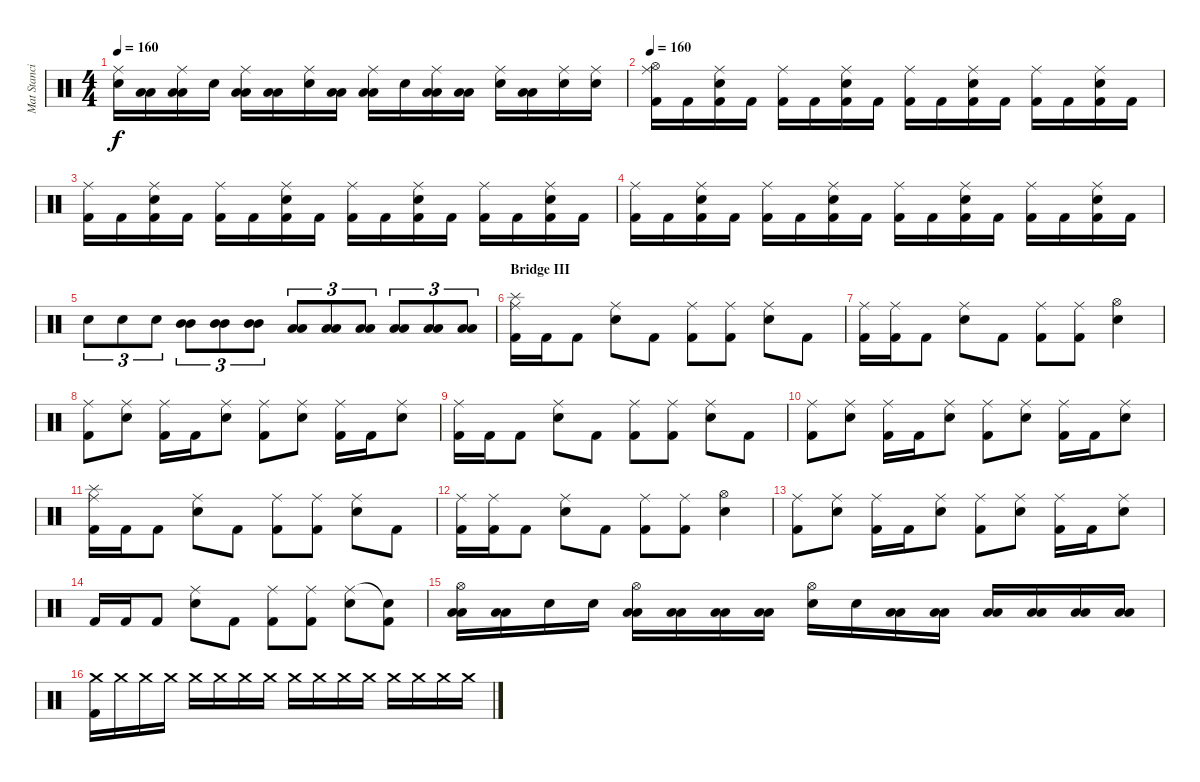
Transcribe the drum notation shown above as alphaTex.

\track ("Mat Stancioiu" "Mat Stanci") {instrument percussion}
\staff {score}
\articulation defaults
\ts (4 4)
\tempo 160
\clef neutral
\ks c
("Electric Snare (hit)" "Ride (middle)").16{dy f} ("Low Tom (hit)" "Low Tom (hit)").16 ("Low Tom (hit)" "Low Tom (hit)" "Ride (middle)").16 "Electric Snare (hit)".16 ("Low Tom (hit)" "Low Tom (hit)" "Ride (middle)").16 ("Low Tom (hit)" "Low Tom (hit)").16 ("Electric Snare (hit)" "Ride (middle)").16 ("Low Tom (hit)" "Low Tom (hit)").16 ("Low Tom (hit)" "Low Tom (hit)" "Ride (middle)").16 "Electric Snare (hit)".16 ("Low Tom (hit)" "Low Tom (hit)" "Ride (middle)").16 ("Low Tom (hit)" "Low Tom (hit)").16 ("Electric Snare (hit)" "Ride (middle)").16 ("Low Tom (hit)" "Low Tom (hit)").16 ("Electric Snare (hit)" "Ride (middle)").16 ("Electric Snare (hit)" "Ride (middle)").16 |
\tempo 160
("Hi-Hat (open)" "Kick (hit) 2" "Ride (middle)").16 "Kick (hit) 2".16 ("Electric Snare (hit)" "Kick (hit) 2" "Ride (middle)").16 "Kick (hit) 2".16 ("Kick (hit) 2" "Ride (middle)").16 "Kick (hit) 2".16 ("Electric Snare (hit)" "Kick (hit) 2" "Ride (middle)").16 "Kick (hit) 2".16 ("Kick (hit) 2" "Ride (middle)").16 "Kick (hit) 2".16 ("Electric Snare (hit)" "Kick (hit) 2" "Ride (middle)").16 "Kick (hit) 2".16 ("Kick (hit) 2" "Ride (middle)").16 "Kick (hit) 2".16 ("Electric Snare (hit)" "Kick (hit) 2" "Ride (middle)").16 "Kick (hit) 2".16 |
("Kick (hit) 2" "Ride (middle)").16 "Kick (hit) 2".16 ("Electric Snare (hit)" "Kick (hit) 2" "Ride (middle)").16 "Kick (hit) 2".16 ("Kick (hit) 2" "Ride (middle)").16 "Kick (hit) 2".16 ("Electric Snare (hit)" "Kick (hit) 2" "Ride (middle)").16 "Kick (hit) 2".16 ("Kick (hit) 2" "Ride (middle)").16 "Kick (hit) 2".16 ("Electric Snare (hit)" "Kick (hit) 2" "Ride (middle)").16 "Kick (hit) 2".16 ("Kick (hit) 2" "Ride (middle)").16 "Kick (hit) 2".16 ("Electric Snare (hit)" "Kick (hit) 2" "Ride (middle)").16 "Kick (hit) 2".16 |
("Kick (hit) 2" "Ride (middle)").16 "Kick (hit) 2".16 ("Electric Snare (hit)" "Kick (hit) 2" "Ride (middle)").16 "Kick (hit) 2".16 ("Kick (hit) 2" "Ride (middle)").16 "Kick (hit) 2".16 ("Electric Snare (hit)" "Kick (hit) 2" "Ride (middle)").16 "Kick (hit) 2".16 ("Kick (hit) 2" "Ride (middle)").16 "Kick (hit) 2".16 ("Electric Snare (hit)" "Kick (hit) 2" "Ride (middle)").16 "Kick (hit) 2".16 ("Kick (hit) 2" "Ride (middle)").16 "Kick (hit) 2".16 ("Electric Snare (hit)" "Kick (hit) 2" "Ride (middle)").16 "Kick (hit) 2".16 |
"Electric Snare (hit)".8{tu (3 2)} "Electric Snare (hit)".8{tu (3 2)} "Electric Snare (hit)".8{tu (3 2)} ("Mid Tom (hit)" "Mid Tom (hit)").8{tu (3 2)} ("Mid Tom (hit)" "Mid Tom (hit)").8{tu (3 2)} ("Mid Tom (hit)" "Mid Tom (hit)").8{tu (3 2)} ("Low Tom (hit)" "Low Tom (hit)").8{tu (3 2)} ("Low Tom (hit)" "Low Tom (hit)").8{tu (3 2)} ("Low Tom (hit)" "Low Tom (hit)").8{tu (3 2)} ("Low Floor Tom (hit)" "Low Floor Tom (hit)").8{tu (3 2)} ("Low Floor Tom (hit)" "Low Floor Tom (hit)").8{tu (3 2)} ("Low Floor Tom (hit)" "Low Floor Tom (hit)").8{tu (3 2)} |
\section ("" "Bridge III")
("Kick (hit) 2" "Ride (middle)" "Splash (hit)").16 "Kick (hit) 2".16 "Kick (hit) 2".8 ("Electric Snare (hit)" "Ride (middle)").8 "Kick (hit) 2".8 ("Kick (hit) 2" "Ride (middle)").8 ("Kick (hit) 2" "Ride (middle)").8 ("Electric Snare (hit)" "Ride (middle)").8 "Kick (hit) 2".8 |
("Kick (hit) 2" "Ride (middle)").16 ("Kick (hit) 2" "Ride (middle)").16 "Kick (hit) 2".8 ("Electric Snare (hit)" "Ride (middle)").8 "Kick (hit) 2".8 ("Kick (hit) 2" "Ride (middle)").8 ("Kick (hit) 2" "Ride (middle)").8 ("Electric Snare (hit)" "Hi-Hat (open)").4 |
("Kick (hit) 2" "Ride (middle)").8 ("Electric Snare (hit)" "Ride (middle)").8 ("Kick (hit) 2" "Ride (middle)").16 "Kick (hit) 2".16 ("Electric Snare (hit)" "Ride (middle)").8 ("Kick (hit) 2" "Ride (middle)").8 ("Electric Snare (hit)" "Ride (middle)").8 ("Kick (hit) 2" "Ride (middle)").16 "Kick (hit) 2".16 ("Electric Snare (hit)" "Ride (middle)").8 |
("Kick (hit) 2" "Ride (middle)").16 "Kick (hit) 2".16 "Kick (hit) 2".8 ("Electric Snare (hit)" "Ride (middle)").8 "Kick (hit) 2".8 ("Kick (hit) 2" "Ride (middle)").8 ("Kick (hit) 2" "Ride (middle)").8 ("Electric Snare (hit)" "Ride (middle)").8 "Kick (hit) 2".8 |
("Kick (hit) 2" "Ride (middle)").8 ("Electric Snare (hit)" "Ride (middle)").8 ("Kick (hit) 2" "Ride (middle)").16 "Kick (hit) 2".16 ("Electric Snare (hit)" "Ride (middle)").8 ("Kick (hit) 2" "Ride (middle)").8 ("Electric Snare (hit)" "Ride (middle)").8 ("Kick (hit) 2" "Ride (middle)").16 "Kick (hit) 2".16 ("Electric Snare (hit)" "Ride (middle)").8 |
("Kick (hit) 2" "Ride (middle)" "Splash (hit)").16 "Kick (hit) 2".16 "Kick (hit) 2".8 ("Electric Snare (hit)" "Ride (middle)").8 "Kick (hit) 2".8 ("Kick (hit) 2" "Ride (middle)").8 ("Kick (hit) 2" "Ride (middle)").8 ("Electric Snare (hit)" "Ride (middle)").8 "Kick (hit) 2".8 |
("Kick (hit) 2" "Ride (middle)").16 ("Kick (hit) 2" "Ride (middle)").16 "Kick (hit) 2".8 ("Electric Snare (hit)" "Ride (middle)").8 "Kick (hit) 2".8 ("Kick (hit) 2" "Ride (middle)").8 ("Kick (hit) 2" "Ride (middle)").8 ("Electric Snare (hit)" "Hi-Hat (open)").4 |
("Kick (hit) 2" "Ride (middle)").8 ("Electric Snare (hit)" "Ride (middle)").8 ("Kick (hit) 2" "Ride (middle)").16 "Kick (hit) 2".16 ("Electric Snare (hit)" "Ride (middle)").8 ("Kick (hit) 2" "Ride (middle)").8 ("Electric Snare (hit)" "Ride (middle)").8 ("Kick (hit) 2" "Ride (middle)").16 "Kick (hit) 2".16 ("Electric Snare (hit)" "Ride (middle)").8 |
"Kick (hit) 2".16 "Kick (hit) 2".16 "Kick (hit) 2".8 ("Electric Snare (hit)" "Ride (middle)").8 "Kick (hit) 2".8 ("Kick (hit) 2" "Ride (middle)").8 ("Kick (hit) 2" "Ride (middle)").8 ("Electric Snare (hit)" "Ride (middle)").8 ("Kick (hit) 2" "Snare (hit)"{t}).8 |
("Low Tom (hit)" "Low Tom (hit)" "Hi-Hat (open)").16 ("Low Tom (hit)" "Low Tom (hit)").16 "Electric Snare (hit)".16 "Electric Snare (hit)".16 ("Low Tom (hit)" "Low Tom (hit)" "Hi-Hat (open)").16 ("Low Tom (hit)" "Low Tom (hit)").16 ("Low Tom (hit)" "Low Tom (hit)").16 ("Low Tom (hit)" "Low Tom (hit)").16 ("Electric Snare (hit)" "Hi-Hat (open)").16 "Electric Snare (hit)".16 ("Low Tom (hit)" "Low Tom (hit)").16 ("Low Tom (hit)" "Low Tom (hit)").16 ("Low Floor Tom (hit)" "Low Floor Tom (hit)").16 ("Low Floor Tom (hit)" "Low Floor Tom (hit)").16 ("Low Floor Tom (hit)" "Low Floor Tom (hit)").16 ("Low Floor Tom (hit)" "Low Floor Tom (hit)").16 |
("Kick (hit) 2" "Crash medium (hit)").16{volume 3} "Crash medium (hit)".16{volume 14} "Crash medium (hit)".16 "Crash medium (hit)".16 "Crash medium (hit)".16 "Crash medium (hit)".16 "Crash medium (hit)".16 "Crash medium (hit)".16 "Crash medium (hit)".16 "Crash medium (hit)".16 "Crash medium (hit)".16 "Crash medium (hit)".16 "Crash medium (hit)".16 "Crash medium (hit)".16 "Crash medium (hit)".16 "Crash medium (hit)".16
